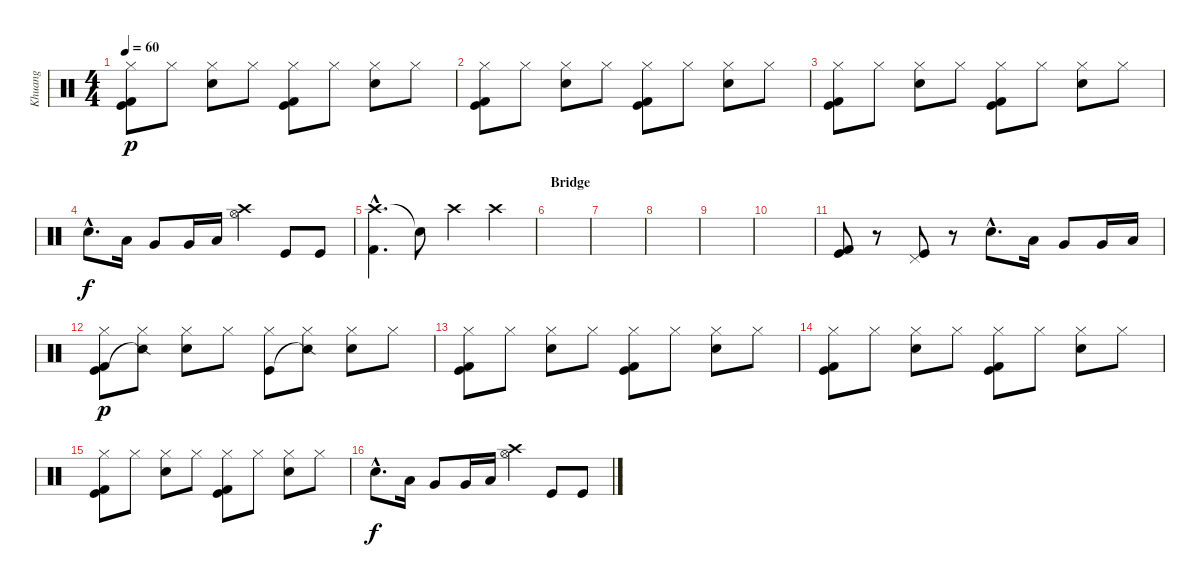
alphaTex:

\track ("Khuang" "Khuang") {instrument percussion}
\staff {score}
\articulation defaults
\ts (4 4)
\tempo 60
\clef neutral
\ks c
("Kick (hit) 2" "Kick (hit)" "Hi-Hat (closed)").8{dy p} "Hi-Hat (closed)".8 ("Electric Snare (hit)" "Hi-Hat (closed)").8 "Hi-Hat (closed)".8 ("Kick (hit) 2" "Kick (hit)" "Hi-Hat (closed)").8 "Hi-Hat (closed)".8 ("Electric Snare (hit)" "Hi-Hat (closed)").8 "Hi-Hat (closed)".8 |
("Kick (hit) 2" "Kick (hit)" "Hi-Hat (closed)").8 "Hi-Hat (closed)".8 ("Electric Snare (hit)" "Hi-Hat (closed)").8 "Hi-Hat (closed)".8 ("Kick (hit) 2" "Kick (hit)" "Hi-Hat (closed)").8 "Hi-Hat (closed)".8 ("Electric Snare (hit)" "Hi-Hat (closed)").8 "Hi-Hat (closed)".8 |
("Kick (hit) 2" "Kick (hit)" "Hi-Hat (closed)").8 "Hi-Hat (closed)".8 ("Electric Snare (hit)" "Hi-Hat (closed)").8 "Hi-Hat (closed)".8 ("Kick (hit) 2" "Kick (hit)" "Hi-Hat (closed)").8 "Hi-Hat (closed)".8 ("Electric Snare (hit)" "Hi-Hat (closed)").8 "Hi-Hat (closed)".8 |
"Snare (hit) 2"{hac}.8{d dy f} "Low Tom (hit)".16 "Very Low Tom (hit)".8 "Very Low Tom (hit)".16 "Low Floor Tom (hit)".16 ("Hi-Hat (open)" "Crash high (hit)").4 "Kick (hit)".8 "Kick (hit)".8 |
("Crash high (hit)"{hac} "Kick (hit) 2"{hac}).4{d} "Snare (hit)"{t}.8{volume 2} "Crash high (hit)".4{volume 16} "Crash high (hit)".4 |
\section ("" "Bridge")
|
|
|
|
|
("Kick (hit)" "Kick (hit) 2").8 r.8 ("Kick (hit)" "Pedal Hi-Hat (hit)").8 r.8 "Snare (hit) 2"{hac}.8{d} "Low Tom (hit)".16 "Very Low Tom (hit)".8 "Very Low Tom (hit)".16 "Low Floor Tom (hit)".16 |
("Kick (hit)" "Kick (hit) 2" "Hi-Hat (closed)").8{dy p volume 12} ("Snare (side stick) 2"{t} "Hi-Hat (closed)").8 ("Electric Snare (hit)" "Hi-Hat (closed)").8 "Hi-Hat (closed)".8 ("Kick (hit)" "Hi-Hat (closed)").8 ("Snare (side stick) 2"{t} "Hi-Hat (closed)").8 ("Electric Snare (hit)" "Hi-Hat (closed)").8 "Hi-Hat (closed)".8 |
("Kick (hit) 2" "Kick (hit)" "Hi-Hat (closed)").8 "Hi-Hat (closed)".8 ("Electric Snare (hit)" "Hi-Hat (closed)").8 "Hi-Hat (closed)".8 ("Kick (hit) 2" "Kick (hit)" "Hi-Hat (closed)").8 "Hi-Hat (closed)".8 ("Electric Snare (hit)" "Hi-Hat (closed)").8 "Hi-Hat (closed)".8 |
("Kick (hit) 2" "Kick (hit)" "Hi-Hat (closed)").8 "Hi-Hat (closed)".8 ("Electric Snare (hit)" "Hi-Hat (closed)").8 "Hi-Hat (closed)".8 ("Kick (hit) 2" "Kick (hit)" "Hi-Hat (closed)").8 "Hi-Hat (closed)".8 ("Electric Snare (hit)" "Hi-Hat (closed)").8 "Hi-Hat (closed)".8 |
("Kick (hit) 2" "Kick (hit)" "Hi-Hat (closed)").8 "Hi-Hat (closed)".8 ("Electric Snare (hit)" "Hi-Hat (closed)").8 "Hi-Hat (closed)".8 ("Kick (hit) 2" "Kick (hit)" "Hi-Hat (closed)").8 "Hi-Hat (closed)".8 ("Electric Snare (hit)" "Hi-Hat (closed)").8 "Hi-Hat (closed)".8 |
"Snare (hit) 2"{hac}.8{d dy f} "Low Tom (hit)".16 "Very Low Tom (hit)".8 "Very Low Tom (hit)".16 "Low Floor Tom (hit)".16 ("Hi-Hat (open)" "Crash high (hit)").4 "Kick (hit)".8 "Kick (hit)".8
